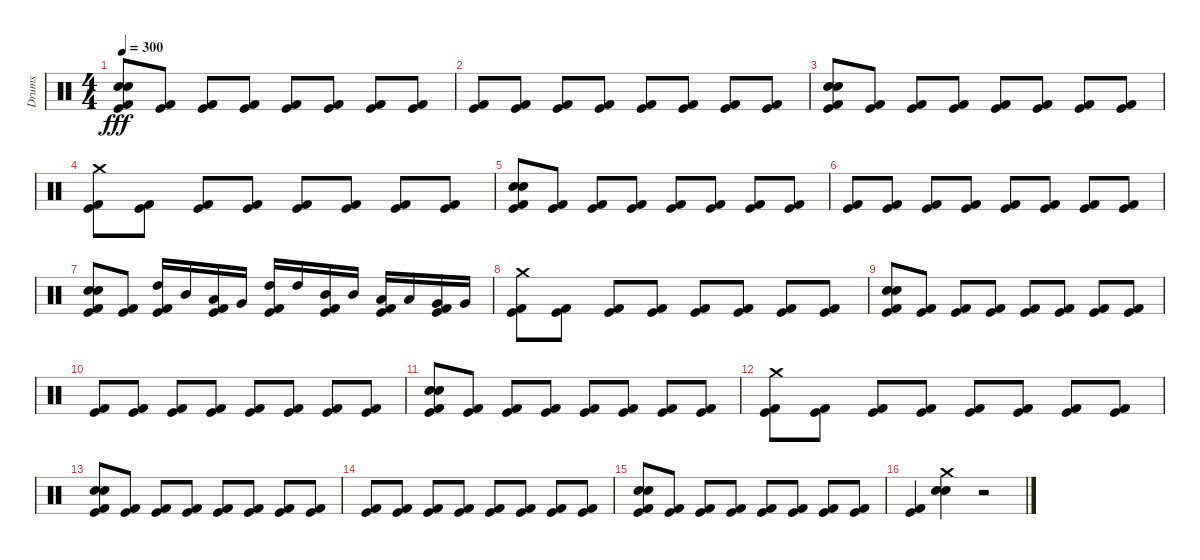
\track ("Drums" "Drums") {instrument percussion}
\staff {score}
\articulation defaults
\ts (4 4)
\tempo 300
\clef neutral
\ks c
("Kick (hit) 2" "Snare (hit) 2" "Electric Snare (hit)" "Kick (hit)").8{dy fff} ("Kick (hit) 2" "Kick (hit)").8 ("Kick (hit) 2" "Kick (hit)").8 ("Kick (hit) 2" "Kick (hit)").8 ("Kick (hit) 2" "Kick (hit)").8 ("Kick (hit) 2" "Kick (hit)").8 ("Kick (hit) 2" "Kick (hit)").8 ("Kick (hit) 2" "Kick (hit)").8 |
("Kick (hit) 2" "Kick (hit)").8 ("Kick (hit) 2" "Kick (hit)").8 ("Kick (hit) 2" "Kick (hit)").8 ("Kick (hit) 2" "Kick (hit)").8 ("Kick (hit) 2" "Kick (hit)").8 ("Kick (hit) 2" "Kick (hit)").8 ("Kick (hit) 2" "Kick (hit)").8 ("Kick (hit) 2" "Kick (hit)").8 |
("Kick (hit) 2" "Snare (hit) 2" "Electric Snare (hit)" "Kick (hit)").8 ("Kick (hit) 2" "Kick (hit)").8 ("Kick (hit) 2" "Kick (hit)").8 ("Kick (hit) 2" "Kick (hit)").8 ("Kick (hit) 2" "Kick (hit)").8 ("Kick (hit) 2" "Kick (hit)").8 ("Kick (hit) 2" "Kick (hit)").8 ("Kick (hit) 2" "Kick (hit)").8 |
("Kick (hit) 2" "Crash medium (hit)" "Kick (hit)").8 ("Kick (hit) 2" "Kick (hit)").8 ("Kick (hit) 2" "Kick (hit)").8 ("Kick (hit) 2" "Kick (hit)").8 ("Kick (hit) 2" "Kick (hit)").8 ("Kick (hit) 2" "Kick (hit)").8 ("Kick (hit) 2" "Kick (hit)").8 ("Kick (hit) 2" "Kick (hit)").8 |
("Kick (hit) 2" "Snare (hit) 2" "Electric Snare (hit)" "Kick (hit)").8 ("Kick (hit) 2" "Kick (hit)").8 ("Kick (hit) 2" "Kick (hit)").8 ("Kick (hit) 2" "Kick (hit)").8 ("Kick (hit) 2" "Kick (hit)").8 ("Kick (hit) 2" "Kick (hit)").8 ("Kick (hit) 2" "Kick (hit)").8 ("Kick (hit) 2" "Kick (hit)").8 |
("Kick (hit) 2" "Kick (hit)").8 ("Kick (hit) 2" "Kick (hit)").8 ("Kick (hit) 2" "Kick (hit)").8 ("Kick (hit) 2" "Kick (hit)").8 ("Kick (hit) 2" "Kick (hit)").8 ("Kick (hit) 2" "Kick (hit)").8 ("Kick (hit) 2" "Kick (hit)").8 ("Kick (hit) 2" "Kick (hit)").8 |
("Kick (hit) 2" "Snare (hit) 2" "Electric Snare (hit)" "Kick (hit)").8 ("Kick (hit) 2" "Kick (hit)").8 ("Kick (hit) 2" "High Tom (hit)" "Kick (hit)").16 "Mid Tom (hit)".16 ("Kick (hit) 2" "Low Tom (hit)" "Kick (hit)").16 "Very Low Tom (hit)".16 ("Kick (hit) 2" "High Tom (hit)" "Kick (hit)").16 "High Tom (hit)".16 ("Kick (hit) 2" "Mid Tom (hit)" "Kick (hit)").16 "Mid Tom (hit)".16 ("Kick (hit) 2" "Low Tom (hit)" "Kick (hit)").16 "Low Tom (hit)".16 ("Kick (hit) 2" "Very Low Tom (hit)" "Kick (hit)").16 "Very Low Tom (hit)".16 |
("Kick (hit) 2" "Crash medium (hit)" "Kick (hit)").8 ("Kick (hit) 2" "Kick (hit)").8 ("Kick (hit) 2" "Kick (hit)").8 ("Kick (hit) 2" "Kick (hit)").8 ("Kick (hit) 2" "Kick (hit)").8 ("Kick (hit) 2" "Kick (hit)").8 ("Kick (hit) 2" "Kick (hit)").8 ("Kick (hit) 2" "Kick (hit)").8 |
("Kick (hit) 2" "Snare (hit) 2" "Electric Snare (hit)" "Kick (hit)").8 ("Kick (hit) 2" "Kick (hit)").8 ("Kick (hit) 2" "Kick (hit)").8 ("Kick (hit) 2" "Kick (hit)").8 ("Kick (hit) 2" "Kick (hit)").8 ("Kick (hit) 2" "Kick (hit)").8 ("Kick (hit) 2" "Kick (hit)").8 ("Kick (hit) 2" "Kick (hit)").8 |
("Kick (hit) 2" "Kick (hit)").8 ("Kick (hit) 2" "Kick (hit)").8 ("Kick (hit) 2" "Kick (hit)").8 ("Kick (hit) 2" "Kick (hit)").8 ("Kick (hit) 2" "Kick (hit)").8 ("Kick (hit) 2" "Kick (hit)").8 ("Kick (hit) 2" "Kick (hit)").8 ("Kick (hit) 2" "Kick (hit)").8 |
("Kick (hit) 2" "Kick (hit)" "Snare (hit) 2" "Electric Snare (hit)").8 ("Kick (hit) 2" "Kick (hit)").8 ("Kick (hit) 2" "Kick (hit)").8 ("Kick (hit) 2" "Kick (hit)").8 ("Kick (hit) 2" "Kick (hit)").8 ("Kick (hit) 2" "Kick (hit)").8 ("Kick (hit) 2" "Kick (hit)").8 ("Kick (hit) 2" "Kick (hit)").8 |
("Kick (hit) 2" "Crash medium (hit)" "Kick (hit)").8 ("Kick (hit) 2" "Kick (hit)").8 ("Kick (hit) 2" "Kick (hit)").8 ("Kick (hit) 2" "Kick (hit)").8 ("Kick (hit) 2" "Kick (hit)").8 ("Kick (hit) 2" "Kick (hit)").8 ("Kick (hit) 2" "Kick (hit)").8 ("Kick (hit) 2" "Kick (hit)").8 |
("Kick (hit) 2" "Electric Snare (hit)" "Snare (hit) 2" "Kick (hit)").8 ("Kick (hit) 2" "Kick (hit)").8 ("Kick (hit) 2" "Kick (hit)").8 ("Kick (hit) 2" "Kick (hit)").8 ("Kick (hit) 2" "Kick (hit)").8 ("Kick (hit) 2" "Kick (hit)").8 ("Kick (hit) 2" "Kick (hit)").8 ("Kick (hit) 2" "Kick (hit)").8 |
("Kick (hit) 2" "Kick (hit)").8 ("Kick (hit) 2" "Kick (hit)").8 ("Kick (hit) 2" "Kick (hit)").8 ("Kick (hit) 2" "Kick (hit)").8 ("Kick (hit) 2" "Kick (hit)").8 ("Kick (hit) 2" "Kick (hit)").8 ("Kick (hit) 2" "Kick (hit)").8 ("Kick (hit) 2" "Kick (hit)").8 |
("Kick (hit) 2" "Snare (hit) 2" "Electric Snare (hit)" "Kick (hit)").8 ("Kick (hit) 2" "Kick (hit)").8 ("Kick (hit) 2" "Kick (hit)").8 ("Kick (hit) 2" "Kick (hit)").8 ("Kick (hit) 2" "Kick (hit)").8 ("Kick (hit) 2" "Kick (hit)").8 ("Kick (hit) 2" "Kick (hit)").8 ("Kick (hit) 2" "Kick (hit)").8 |
("Kick (hit) 2" "Kick (hit)").4 ("Crash medium (hit)" "Snare (hit) 2" "Electric Snare (hit)").4 r.2
